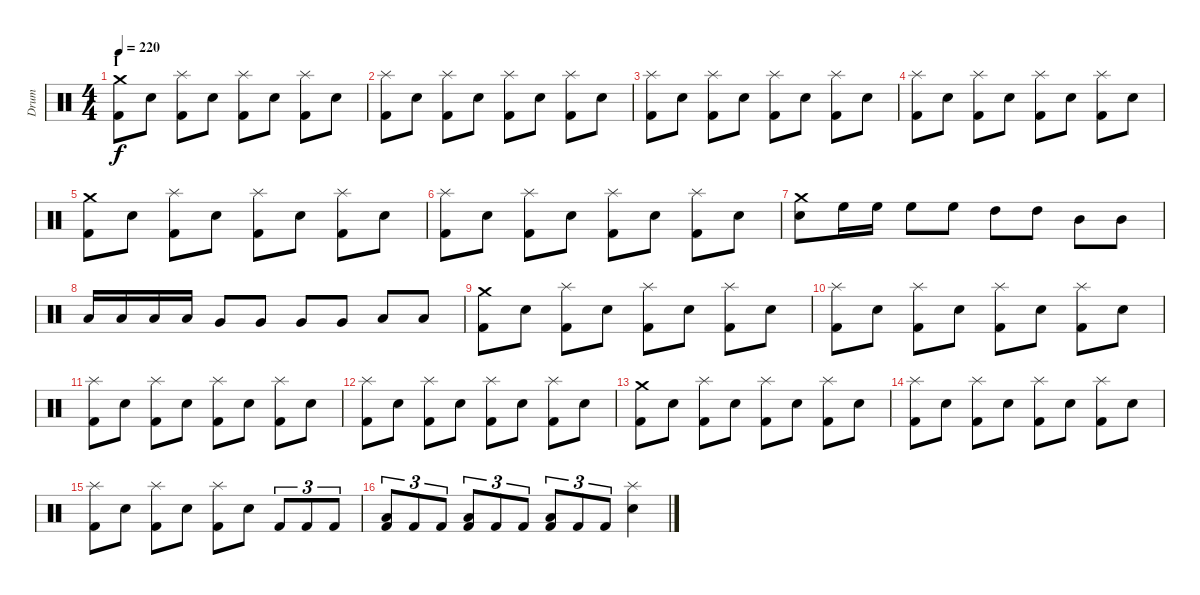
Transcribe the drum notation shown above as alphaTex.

\track ("Drum" "Drum") {instrument percussion}
\staff {score}
\articulation defaults
\ts (4 4)
\section ("" "I")
\tempo 220
\clef neutral
\ks c
("Crash medium (hit)" "Kick (hit) 2").8{dy f} "Electric Snare (hit)".8 ("Splash (hit)" "Kick (hit) 2").8 "Electric Snare (hit)".8 ("Splash (hit)" "Kick (hit) 2").8 "Electric Snare (hit)".8 ("Splash (hit)" "Kick (hit) 2").8 "Electric Snare (hit)".8 |
("Splash (hit)" "Kick (hit) 2").8 "Electric Snare (hit)".8 ("Splash (hit)" "Kick (hit) 2").8 "Electric Snare (hit)".8 ("Splash (hit)" "Kick (hit) 2").8 "Electric Snare (hit)".8 ("Splash (hit)" "Kick (hit) 2").8 "Electric Snare (hit)".8 |
("Splash (hit)" "Kick (hit) 2").8 "Electric Snare (hit)".8 ("Splash (hit)" "Kick (hit) 2").8 "Electric Snare (hit)".8 ("Splash (hit)" "Kick (hit) 2").8 "Electric Snare (hit)".8 ("Splash (hit)" "Kick (hit) 2").8 "Electric Snare (hit)".8 |
("Splash (hit)" "Kick (hit) 2").8 "Electric Snare (hit)".8 ("Splash (hit)" "Kick (hit) 2").8 "Electric Snare (hit)".8 ("Splash (hit)" "Kick (hit) 2").8 "Electric Snare (hit)".8 ("Splash (hit)" "Kick (hit) 2").8 "Electric Snare (hit)".8 |
("Crash medium (hit)" "Kick (hit) 2").8 "Electric Snare (hit)".8 ("Splash (hit)" "Kick (hit) 2").8 "Electric Snare (hit)".8 ("Splash (hit)" "Kick (hit) 2").8 "Electric Snare (hit)".8 ("Splash (hit)" "Kick (hit) 2").8 "Electric Snare (hit)".8 |
("Splash (hit)" "Kick (hit) 2").8 "Electric Snare (hit)".8 ("Splash (hit)" "Kick (hit) 2").8 "Electric Snare (hit)".8 ("Splash (hit)" "Kick (hit) 2").8 "Electric Snare (hit)".8 ("Splash (hit)" "Kick (hit) 2").8 "Electric Snare (hit)".8 |
("Crash medium (hit)" "Electric Snare (hit)").8 "High Floor Tom (hit)".16 "High Floor Tom (hit)".16 "High Floor Tom (hit)".8 "High Floor Tom (hit)".8 "High Tom (hit)".8 "High Tom (hit)".8 "Mid Tom (hit)".8 "Mid Tom (hit)".8 |
"Low Tom (hit)".16 "Low Tom (hit)".16 "Low Tom (hit)".16 "Low Tom (hit)".16 "Very Low Tom (hit)".8 "Very Low Tom (hit)".8 "Very Low Tom (hit)".8 "Very Low Tom (hit)".8 "Low Floor Tom (hit)".8 "Low Floor Tom (hit)".8 |
("Crash medium (hit)" "Kick (hit) 2").8 "Electric Snare (hit)".8 ("Splash (hit)" "Kick (hit) 2").8 "Electric Snare (hit)".8 ("Splash (hit)" "Kick (hit) 2").8 "Electric Snare (hit)".8 ("Splash (hit)" "Kick (hit) 2").8 "Electric Snare (hit)".8 |
("Splash (hit)" "Kick (hit) 2").8 "Electric Snare (hit)".8 ("Splash (hit)" "Kick (hit) 2").8 "Electric Snare (hit)".8 ("Splash (hit)" "Kick (hit) 2").8 "Electric Snare (hit)".8 ("Splash (hit)" "Kick (hit) 2").8 "Electric Snare (hit)".8 |
("Splash (hit)" "Kick (hit) 2").8 "Electric Snare (hit)".8 ("Splash (hit)" "Kick (hit) 2").8 "Electric Snare (hit)".8 ("Splash (hit)" "Kick (hit) 2").8 "Electric Snare (hit)".8 ("Splash (hit)" "Kick (hit) 2").8 "Electric Snare (hit)".8 |
("Splash (hit)" "Kick (hit) 2").8 "Electric Snare (hit)".8 ("Splash (hit)" "Kick (hit) 2").8 "Electric Snare (hit)".8 ("Splash (hit)" "Kick (hit) 2").8 "Electric Snare (hit)".8 ("Splash (hit)" "Kick (hit) 2").8 "Electric Snare (hit)".8 |
("Crash medium (hit)" "Kick (hit) 2").8 "Electric Snare (hit)".8 ("Splash (hit)" "Kick (hit) 2").8 "Electric Snare (hit)".8 ("Splash (hit)" "Kick (hit) 2").8 "Electric Snare (hit)".8 ("Splash (hit)" "Kick (hit) 2").8 "Electric Snare (hit)".8 |
("Splash (hit)" "Kick (hit) 2").8 "Electric Snare (hit)".8 ("Splash (hit)" "Kick (hit) 2").8 "Electric Snare (hit)".8 ("Splash (hit)" "Kick (hit) 2").8 "Electric Snare (hit)".8 ("Splash (hit)" "Kick (hit) 2").8 "Electric Snare (hit)".8 |
("Splash (hit)" "Kick (hit) 2").8 "Electric Snare (hit)".8 ("Splash (hit)" "Kick (hit) 2").8 "Electric Snare (hit)".8 ("Splash (hit)" "Kick (hit) 2").8 "Electric Snare (hit)".8 "Kick (hit) 2".8{tu (3 2)} "Kick (hit) 2".8{tu (3 2)} "Kick (hit) 2".8{tu (3 2)} |
("Low Tom (hit)" "Kick (hit) 2").8{tu (3 2)} "Kick (hit) 2".8{tu (3 2)} "Kick (hit) 2".8{tu (3 2)} ("Low Tom (hit)" "Kick (hit) 2").8{tu (3 2)} "Kick (hit) 2".8{tu (3 2)} "Kick (hit) 2".8{tu (3 2)} ("Low Tom (hit)" "Kick (hit) 2").8{tu (3 2)} "Kick (hit) 2".8{tu (3 2)} "Kick (hit) 2".8{tu (3 2)} ("Splash (hit)" "Electric Snare (hit)").4
